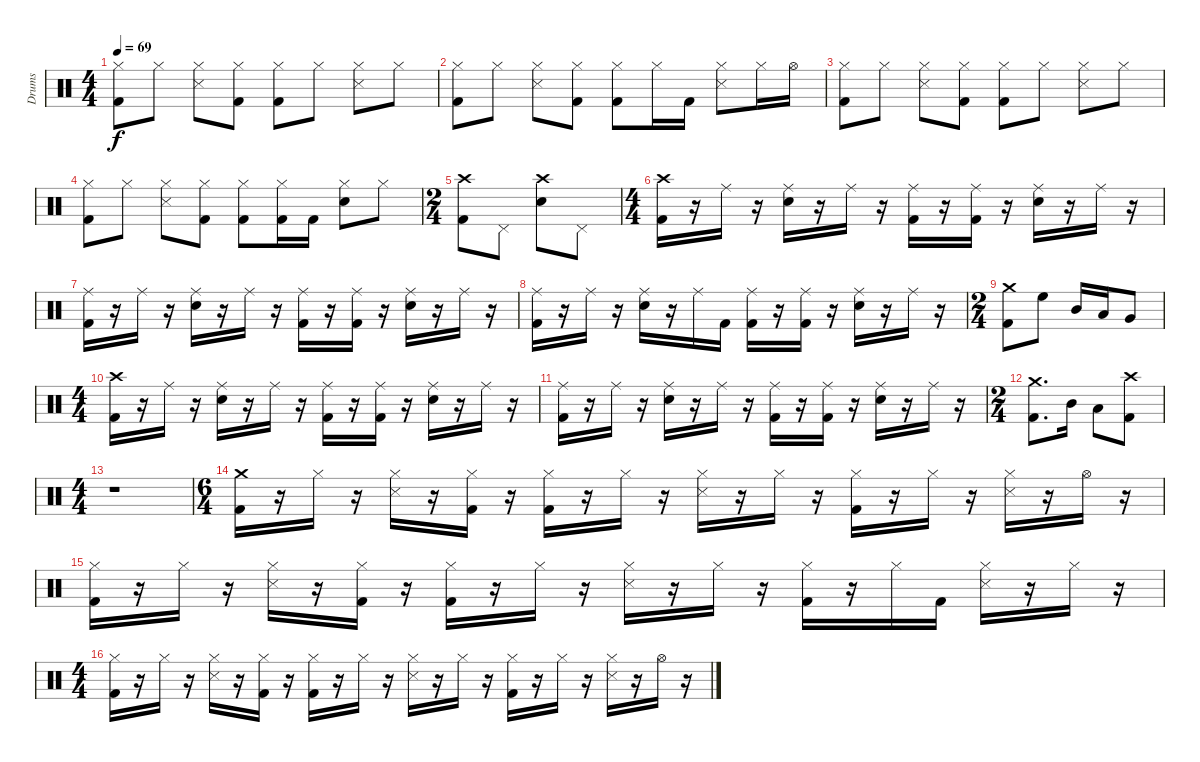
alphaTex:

\track ("Drums" "Drums") {instrument percussion}
\staff {score}
\articulation defaults
\ts (4 4)
\tempo 69
\clef neutral
\ks c
("Hi-Hat (closed)" "Kick (hit) 2").8{dy f} "Hi-Hat (closed)".8 ("Hi-Hat (closed)" "Snare (side stick) 3").8 ("Hi-Hat (closed)" "Kick (hit) 2").8 ("Hi-Hat (closed)" "Kick (hit) 2").8 "Hi-Hat (closed)".8 ("Hi-Hat (closed)" "Snare (side stick) 3").8 "Hi-Hat (closed)".8 |
("Hi-Hat (closed)" "Kick (hit) 2").8 "Hi-Hat (closed)".8 ("Hi-Hat (closed)" "Snare (side stick) 3").8 ("Hi-Hat (closed)" "Kick (hit) 2").8 ("Hi-Hat (closed)" "Kick (hit) 2").8 "Hi-Hat (closed)".16 "Kick (hit) 2".16 ("Hi-Hat (closed)" "Snare (side stick) 3").8 "Hi-Hat (closed)".16 "Hi-Hat (open)".16 |
("Hi-Hat (closed)" "Kick (hit) 2").8 "Hi-Hat (closed)".8 ("Hi-Hat (closed)" "Snare (side stick) 3").8 ("Hi-Hat (closed)" "Kick (hit) 2").8 ("Hi-Hat (closed)" "Kick (hit) 2").8 "Hi-Hat (closed)".8 ("Hi-Hat (closed)" "Snare (side stick) 3").8 "Hi-Hat (closed)".8 |
("Hi-Hat (closed)" "Kick (hit) 2").8 "Hi-Hat (closed)".8 ("Hi-Hat (closed)" "Snare (side stick) 3").8 ("Hi-Hat (closed)" "Kick (hit) 2").8 ("Hi-Hat (closed)" "Kick (hit) 2").8 ("Hi-Hat (closed)" "Kick (hit) 2").16 "Kick (hit) 2".16 ("Hi-Hat (closed)" "Snare (hit) 2").8 "Hi-Hat (closed)".8 |
\ts (2 4)
("Crash high (hit)" "Kick (hit) 2").8 "Pedal Hi-Hat (hit)".8 ("Crash high (hit)" "Snare (hit) 2").8 "Pedal Hi-Hat (hit)".8 |
\ts (4 4)
("Crash high (hit)" "Kick (hit) 2").16 r.16 "Ride (middle)".16 r.16 ("Ride (middle)" "Snare (hit) 2").16 r.16 "Ride (middle)".16 r.16 ("Ride (middle)" "Kick (hit) 2").16 r.16 ("Ride (middle)" "Kick (hit) 2").16 r.16 ("Ride (middle)" "Snare (hit) 2").16 r.16 "Ride (middle)".16 r.16 |
("Ride (middle)" "Kick (hit) 2").16 r.16 "Ride (middle)".16 r.16 ("Ride (middle)" "Snare (hit) 2").16 r.16 "Ride (middle)".16 r.16 ("Ride (middle)" "Kick (hit) 2").16 r.16 ("Ride (middle)" "Kick (hit) 2").16 r.16 ("Ride (middle)" "Snare (hit) 2").16 r.16 "Ride (middle)".16 r.16 |
("Ride (middle)" "Kick (hit) 2").16 r.16 "Ride (middle)".16 r.16 ("Ride (middle)" "Snare (hit) 2").16 r.16 "Ride (middle)".16 "Kick (hit) 2".16 ("Ride (middle)" "Kick (hit) 2").16 r.16 ("Ride (middle)" "Kick (hit) 2").16 r.16 ("Ride (middle)" "Snare (hit) 2").16 r.16 "Ride (middle)".16 r.16 |
\ts (2 4)
("Crash medium (hit)" "Kick (hit) 2").8 "High Floor Tom (hit)".8 "Mid Tom (hit)".16 "Low Tom (hit)".16 "Very Low Tom (hit)".8 |
\ts (4 4)
("Crash high (hit)" "Kick (hit) 2").16 r.16 "Ride (middle)".16 r.16 ("Ride (middle)" "Snare (hit) 2").16 r.16 "Ride (middle)".16 r.16 ("Ride (middle)" "Kick (hit) 2").16 r.16 ("Ride (middle)" "Kick (hit) 2").16 r.16 ("Ride (middle)" "Snare (hit) 2").16 r.16 "Ride (middle)".16 r.16 |
("Ride (middle)" "Kick (hit) 2").16 r.16 "Ride (middle)".16 r.16 ("Ride (middle)" "Snare (hit) 2").16 r.16 "Ride (middle)".16 r.16 ("Ride (middle)" "Kick (hit) 2").16 r.16 ("Ride (middle)" "Kick (hit) 2").16 r.16 ("Ride (middle)" "Snare (hit) 2").16 r.16 "Ride (middle)".16 r.16 |
\ts (2 4)
("Crash medium (hit)" "Kick (hit) 2").8{d} "Mid Tom (hit)".16 "Low Tom (hit)".8 ("Crash high (hit)" "Kick (hit) 2").8 |
\ts (4 4)
r.1 |
\ts (6 4)
("Crash medium (hit)" "Kick (hit) 2").16 r.16 "Hi-Hat (closed)".16 r.16 ("Hi-Hat (closed)" "Snare (side stick) 3").16 r.16 ("Hi-Hat (closed)" "Kick (hit) 2").16 r.16 ("Hi-Hat (closed)" "Kick (hit) 2").16 r.16 "Hi-Hat (closed)".16 r.16 ("Hi-Hat (closed)" "Snare (side stick) 3").16 r.16 "Hi-Hat (closed)".16 r.16 ("Hi-Hat (closed)" "Kick (hit) 2").16 r.16 "Hi-Hat (closed)".16 r.16 ("Hi-Hat (closed)" "Snare (side stick) 3").16 r.16 "Hi-Hat (open)".16 r.16 |
("Hi-Hat (closed)" "Kick (hit) 2").16 r.16 "Hi-Hat (closed)".16 r.16 ("Hi-Hat (closed)" "Snare (side stick) 3").16 r.16 ("Hi-Hat (closed)" "Kick (hit) 2").16 r.16 ("Hi-Hat (closed)" "Kick (hit) 2").16 r.16 "Hi-Hat (closed)".16 r.16 ("Hi-Hat (closed)" "Snare (side stick) 3").16 r.16 "Hi-Hat (closed)".16 r.16 ("Hi-Hat (closed)" "Kick (hit) 2").16 r.16 "Hi-Hat (closed)".16 "Kick (hit) 2".16 ("Hi-Hat (closed)" "Snare (side stick) 3").16 r.16 "Hi-Hat (closed)".16 r.16 |
\ts (4 4)
("Hi-Hat (closed)" "Kick (hit) 2").16 r.16 "Hi-Hat (closed)".16 r.16 ("Hi-Hat (closed)" "Snare (side stick) 3").16 r.16 ("Hi-Hat (closed)" "Kick (hit) 2").16 r.16 ("Hi-Hat (closed)" "Kick (hit) 2").16 r.16 "Hi-Hat (closed)".16 r.16 ("Hi-Hat (closed)" "Snare (side stick) 3").16 r.16 "Hi-Hat (closed)".16 r.16 ("Hi-Hat (closed)" "Kick (hit) 2").16 r.16 "Hi-Hat (closed)".16 r.16 ("Hi-Hat (closed)" "Snare (side stick) 3").16 r.16 "Hi-Hat (open)".16 r.16
